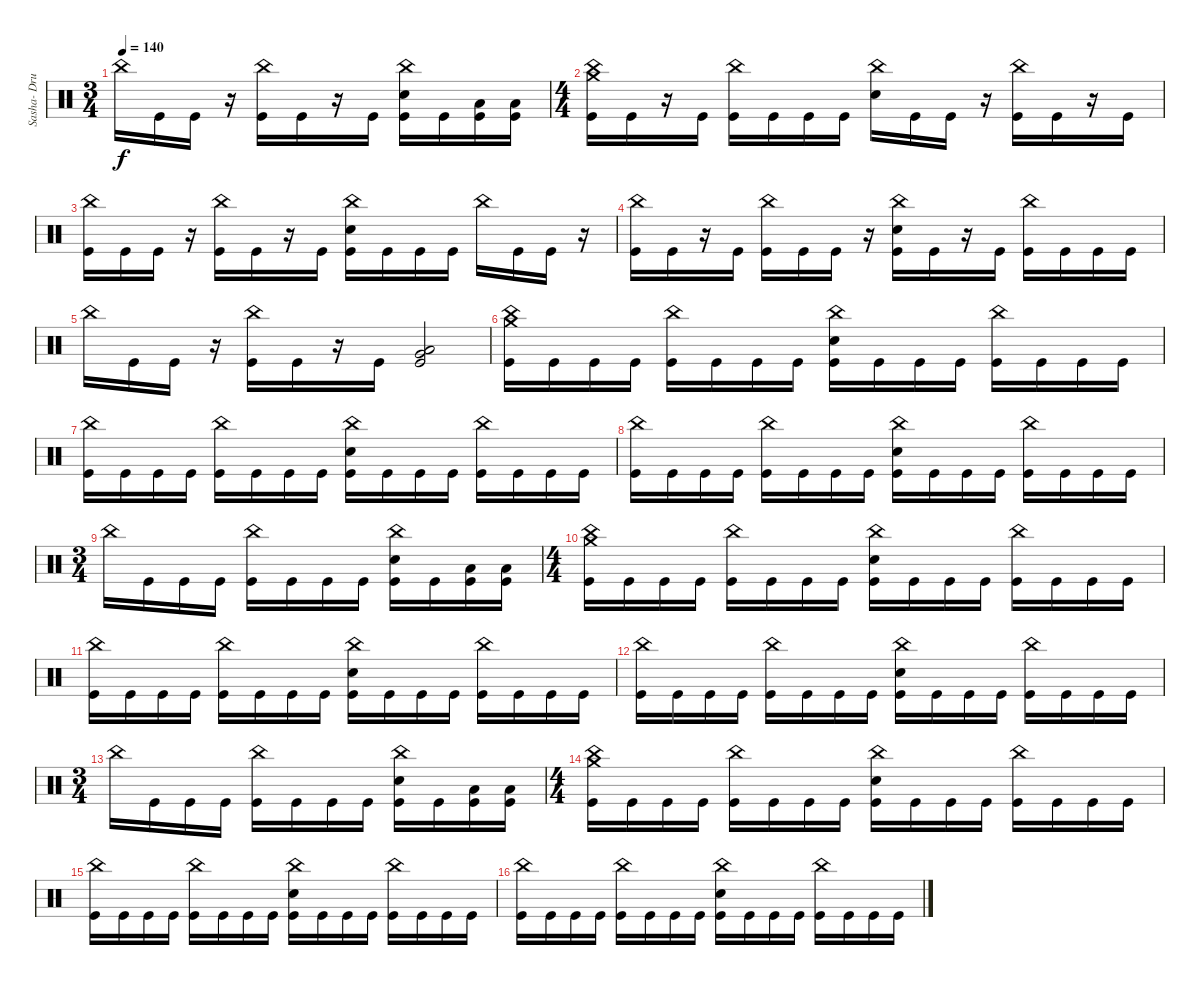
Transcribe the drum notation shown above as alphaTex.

\track ("Sasha- Drums" "Sasha- Dru") {instrument percussion}
\staff {score}
\articulation defaults
\ts (3 4)
\tempo 140
\clef neutral
\ks c "China (hit)".16{dy f} "Kick (hit)".16 "Kick (hit)".16
r.16 ("Kick (hit)" "China (hit)").16 "Kick (hit)".16 r.16 "Kick (hit)".16 ("Kick (hit)" "China (hit)" "Snare (hit) 2").16 "Kick (hit)".16 ("Kick (hit)" "Low Tom (hit)").16 ("Kick (hit)" "Low Tom (hit)").16 |
\ts (4 4)
("Kick (hit)" "Crash medium (hit)" "China (hit)").16 "Kick (hit)".16 r.16 "Kick (hit)".16 ("Kick (hit)" "China (hit)").16 "Kick (hit)".16 "Kick (hit)".16 "Kick (hit)".16 ("China (hit)" "Snare (hit) 2").16 "Kick (hit)".16 "Kick (hit)".16 r.16 ("Kick (hit)" "China (hit)").16 "Kick (hit)".16 r.16 "Kick (hit)".16 |
("Kick (hit)" "China (hit)").16 "Kick (hit)".16 "Kick (hit)".16 r.16 ("Kick (hit)" "China (hit)").16 "Kick (hit)".16 r.16 "Kick (hit)".16 ("Kick (hit)" "China (hit)" "Snare (hit) 2").16 "Kick (hit)".16 "Kick (hit)".16 "Kick (hit)".16 "China (hit)".16 "Kick (hit)".16 "Kick (hit)".16 r.16 |
("Kick (hit)" "China (hit)").16 "Kick (hit)".16 r.16 "Kick (hit)".16 ("Kick (hit)" "China (hit)").16 "Kick (hit)".16 "Kick (hit)".16 r.16 ("Kick (hit)" "China (hit)" "Snare (hit) 2").16 "Kick (hit)".16 r.16 "Kick (hit)".16 ("Kick (hit)" "China (hit)").16 "Kick (hit)".16 "Kick (hit)".16 "Kick (hit)".16 |
"China (hit)".16 "Kick (hit)".16 "Kick (hit)".16 r.16 ("Kick (hit)" "China (hit)").16 "Kick (hit)".16 r.16 "Kick (hit)".16 ("Kick (hit)" "Low Tom (hit)" "Very Low Tom (hit)").2 |
("Kick (hit)" "Crash medium (hit)" "China (hit)").16 "Kick (hit)".16 "Kick (hit)".16 "Kick (hit)".16 ("Kick (hit)" "China (hit)").16 "Kick (hit)".16 "Kick (hit)".16 "Kick (hit)".16 ("China (hit)" "Snare (hit) 2" "Kick (hit)").16 "Kick (hit)".16 "Kick (hit)".16 "Kick (hit)".16 ("Kick (hit)" "China (hit)").16 "Kick (hit)".16 "Kick (hit)".16 "Kick (hit)".16 |
("Kick (hit)" "China (hit)").16 "Kick (hit)".16 "Kick (hit)".16 "Kick (hit)".16 ("Kick (hit)" "China (hit)").16 "Kick (hit)".16 "Kick (hit)".16 "Kick (hit)".16 ("Kick (hit)" "China (hit)" "Snare (hit) 2").16 "Kick (hit)".16 "Kick (hit)".16 "Kick (hit)".16 ("China (hit)" "Kick (hit)").16 "Kick (hit)".16 "Kick (hit)".16 "Kick (hit)".16 |
("Kick (hit)" "China (hit)").16 "Kick (hit)".16 "Kick (hit)".16 "Kick (hit)".16 ("Kick (hit)" "China (hit)").16 "Kick (hit)".16 "Kick (hit)".16 "Kick (hit)".16 ("Kick (hit)" "China (hit)" "Snare (hit) 2").16 "Kick (hit)".16 "Kick (hit)".16 "Kick (hit)".16 ("Kick (hit)" "China (hit)").16 "Kick (hit)".16 "Kick (hit)".16 "Kick (hit)".16 |
\ts (3 4)
"China (hit)".16 "Kick (hit)".16 "Kick (hit)".16 "Kick (hit)".16 ("Kick (hit)" "China (hit)").16 "Kick (hit)".16 "Kick (hit)".16 "Kick (hit)".16 ("Kick (hit)" "China (hit)" "Snare (hit) 2").16 "Kick (hit)".16 ("Kick (hit)" "Low Tom (hit)").16 ("Kick (hit)" "Low Tom (hit)").16 |
\ts (4 4)
("Kick (hit)" "Crash medium (hit)" "China (hit)").16 "Kick (hit)".16 "Kick (hit)".16 "Kick (hit)".16 ("Kick (hit)" "China (hit)").16 "Kick (hit)".16 "Kick (hit)".16 "Kick (hit)".16 ("China (hit)" "Snare (hit) 2" "Kick (hit)").16 "Kick (hit)".16 "Kick (hit)".16 "Kick (hit)".16 ("Kick (hit)" "China (hit)").16 "Kick (hit)".16 "Kick (hit)".16 "Kick (hit)".16 |
("Kick (hit)" "China (hit)").16 "Kick (hit)".16 "Kick (hit)".16 "Kick (hit)".16 ("Kick (hit)" "China (hit)").16 "Kick (hit)".16 "Kick (hit)".16 "Kick (hit)".16 ("Kick (hit)" "China (hit)" "Snare (hit) 2").16 "Kick (hit)".16 "Kick (hit)".16 "Kick (hit)".16 ("China (hit)" "Kick (hit)").16 "Kick (hit)".16 "Kick (hit)".16 "Kick (hit)".16 |
("Kick (hit)" "China (hit)").16 "Kick (hit)".16 "Kick (hit)".16 "Kick (hit)".16 ("Kick (hit)" "China (hit)").16 "Kick (hit)".16 "Kick (hit)".16 "Kick (hit)".16 ("Kick (hit)" "China (hit)" "Snare (hit) 2").16 "Kick (hit)".16 "Kick (hit)".16 "Kick (hit)".16 ("Kick (hit)" "China (hit)").16 "Kick (hit)".16 "Kick (hit)".16 "Kick (hit)".16 |
\ts (3 4)
"China (hit)".16 "Kick (hit)".16 "Kick (hit)".16 "Kick (hit)".16 ("Kick (hit)" "China (hit)").16 "Kick (hit)".16 "Kick (hit)".16 "Kick (hit)".16 ("Kick (hit)" "China (hit)" "Snare (hit) 2").16 "Kick (hit)".16 ("Kick (hit)" "Low Tom (hit)").16 ("Kick (hit)" "Low Tom (hit)").16 |
\ts (4 4)
("Kick (hit)" "Crash medium (hit)" "China (hit)").16 "Kick (hit)".16 "Kick (hit)".16 "Kick (hit)".16 ("Kick (hit)" "China (hit)").16 "Kick (hit)".16 "Kick (hit)".16 "Kick (hit)".16 ("China (hit)" "Snare (hit) 2" "Kick (hit)").16 "Kick (hit)".16 "Kick (hit)".16 "Kick (hit)".16 ("Kick (hit)" "China (hit)").16 "Kick (hit)".16 "Kick (hit)".16 "Kick (hit)".16 |
("Kick (hit)" "China (hit)").16 "Kick (hit)".16 "Kick (hit)".16 "Kick (hit)".16 ("Kick (hit)" "China (hit)").16 "Kick (hit)".16 "Kick (hit)".16 "Kick (hit)".16 ("Kick (hit)" "China (hit)" "Snare (hit) 2").16 "Kick (hit)".16 "Kick (hit)".16 "Kick (hit)".16 ("China (hit)" "Kick (hit)").16 "Kick (hit)".16 "Kick (hit)".16 "Kick (hit)".16 |
("Kick (hit)" "China (hit)").16 "Kick (hit)".16 "Kick (hit)".16 "Kick (hit)".16 ("Kick (hit)" "China (hit)").16 "Kick (hit)".16 "Kick (hit)".16 "Kick (hit)".16 ("Kick (hit)" "China (hit)" "Snare (hit) 2").16 "Kick (hit)".16 "Kick (hit)".16 "Kick (hit)".16 ("Kick (hit)" "China (hit)").16 "Kick (hit)".16 "Kick (hit)".16 "Kick (hit)".16
